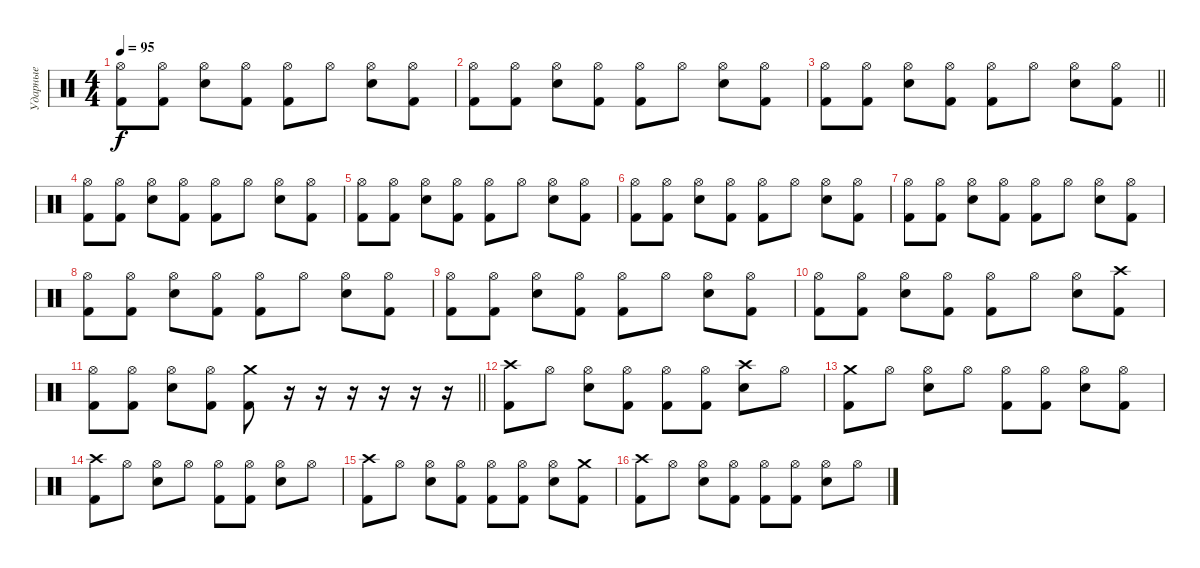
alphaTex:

\track ("Ударные" "Ударные") {instrument percussion}
\staff {score}
\articulation defaults
\ts (4 4)
\tempo 95
\clef neutral
\ks c
("Hi-Hat (open)" "Kick (hit) 2").8{dy f} ("Hi-Hat (open)" "Kick (hit) 2").8 ("Hi-Hat (open)" "Electric Snare (hit)").8 ("Hi-Hat (open)" "Kick (hit) 2").8 ("Hi-Hat (open)" "Kick (hit) 2").8 "Hi-Hat (open)".8 ("Hi-Hat (open)" "Electric Snare (hit)").8 ("Hi-Hat (open)" "Kick (hit) 2").8 |
("Hi-Hat (open)" "Kick (hit) 2").8 ("Hi-Hat (open)" "Kick (hit) 2").8 ("Hi-Hat (open)" "Electric Snare (hit)").8 ("Hi-Hat (open)" "Kick (hit) 2").8 ("Hi-Hat (open)" "Kick (hit) 2").8 "Hi-Hat (open)".8 ("Hi-Hat (open)" "Electric Snare (hit)").8 ("Hi-Hat (open)" "Kick (hit) 2").8 |
\barLineRight lightlight
("Hi-Hat (open)" "Kick (hit) 2").8 ("Hi-Hat (open)" "Kick (hit) 2").8 ("Hi-Hat (open)" "Electric Snare (hit)").8 ("Hi-Hat (open)" "Kick (hit) 2").8 ("Hi-Hat (open)" "Kick (hit) 2").8 "Hi-Hat (open)".8 ("Hi-Hat (open)" "Electric Snare (hit)").8 ("Hi-Hat (open)" "Kick (hit) 2").8 |
("Hi-Hat (open)" "Kick (hit) 2").8 ("Hi-Hat (open)" "Kick (hit) 2").8 ("Hi-Hat (open)" "Electric Snare (hit)").8 ("Hi-Hat (open)" "Kick (hit) 2").8 ("Hi-Hat (open)" "Kick (hit) 2").8 "Hi-Hat (open)".8 ("Hi-Hat (open)" "Electric Snare (hit)").8 ("Hi-Hat (open)" "Kick (hit) 2").8 |
("Hi-Hat (open)" "Kick (hit) 2").8 ("Hi-Hat (open)" "Kick (hit) 2").8 ("Hi-Hat (open)" "Electric Snare (hit)").8 ("Hi-Hat (open)" "Kick (hit) 2").8 ("Hi-Hat (open)" "Kick (hit) 2").8 "Hi-Hat (open)".8 ("Hi-Hat (open)" "Electric Snare (hit)").8 ("Hi-Hat (open)" "Kick (hit) 2").8 |
("Hi-Hat (open)" "Kick (hit) 2").8 ("Hi-Hat (open)" "Kick (hit) 2").8 ("Hi-Hat (open)" "Electric Snare (hit)").8 ("Hi-Hat (open)" "Kick (hit) 2").8 ("Hi-Hat (open)" "Kick (hit) 2").8 "Hi-Hat (open)".8 ("Hi-Hat (open)" "Electric Snare (hit)").8 ("Hi-Hat (open)" "Kick (hit) 2").8 |
("Hi-Hat (open)" "Kick (hit) 2").8 ("Hi-Hat (open)" "Kick (hit) 2").8 ("Hi-Hat (open)" "Electric Snare (hit)").8 ("Hi-Hat (open)" "Kick (hit) 2").8 ("Hi-Hat (open)" "Kick (hit) 2").8 "Hi-Hat (open)".8 ("Hi-Hat (open)" "Electric Snare (hit)").8 ("Hi-Hat (open)" "Kick (hit) 2").8 |
("Hi-Hat (open)" "Kick (hit) 2").8 ("Hi-Hat (open)" "Kick (hit) 2").8 ("Hi-Hat (open)" "Electric Snare (hit)").8 ("Hi-Hat (open)" "Kick (hit) 2").8 ("Hi-Hat (open)" "Kick (hit) 2").8 "Hi-Hat (open)".8 ("Hi-Hat (open)" "Electric Snare (hit)").8 ("Hi-Hat (open)" "Kick (hit) 2").8 |
("Hi-Hat (open)" "Kick (hit) 2").8 ("Hi-Hat (open)" "Kick (hit) 2").8 ("Hi-Hat (open)" "Electric Snare (hit)").8 ("Hi-Hat (open)" "Kick (hit) 2").8 ("Hi-Hat (open)" "Kick (hit) 2").8 "Hi-Hat (open)".8 ("Hi-Hat (open)" "Electric Snare (hit)").8 ("Hi-Hat (open)" "Kick (hit) 2").8 |
("Hi-Hat (open)" "Kick (hit) 2").8 ("Hi-Hat (open)" "Kick (hit) 2").8 ("Hi-Hat (open)" "Electric Snare (hit)").8 ("Hi-Hat (open)" "Kick (hit) 2").8 ("Hi-Hat (open)" "Kick (hit) 2").8 "Hi-Hat (open)".8 ("Hi-Hat (open)" "Electric Snare (hit)").8 ("Crash high (hit)" "Kick (hit) 2").8 |
\barLineRight lightlight
("Hi-Hat (open)" "Kick (hit) 2").8 ("Hi-Hat (open)" "Kick (hit) 2").8 ("Hi-Hat (open)" "Electric Snare (hit)").8 ("Hi-Hat (open)" "Kick (hit) 2").8 ("Crash medium (hit)" "Kick (hit) 2").8 r.16 r.16 r.16 r.16 r.16 r.16 |
("Crash high (hit)" "Kick (hit) 2").8 "Hi-Hat (open)".8 ("Hi-Hat (open)" "Electric Snare (hit)").8 ("Hi-Hat (open)" "Kick (hit) 2").8 ("Hi-Hat (open)" "Kick (hit) 2").8 ("Hi-Hat (open)" "Kick (hit) 2").8 ("Crash high (hit)" "Electric Snare (hit)").8 "Hi-Hat (open)".8 |
("Crash medium (hit)" "Kick (hit) 2").8 "Hi-Hat (open)".8 ("Hi-Hat (open)" "Electric Snare (hit)").8 "Hi-Hat (open)".8 ("Hi-Hat (open)" "Kick (hit) 2").8 ("Hi-Hat (open)" "Kick (hit) 2").8 ("Hi-Hat (open)" "Electric Snare (hit)").8 ("Hi-Hat (open)" "Kick (hit) 2").8 |
("Crash high (hit)" "Kick (hit) 2").8 "Hi-Hat (open)".8 ("Hi-Hat (open)" "Electric Snare (hit)").8 "Hi-Hat (open)".8 ("Hi-Hat (open)" "Kick (hit) 2").8 ("Hi-Hat (open)" "Kick (hit) 2").8 ("Hi-Hat (open)" "Electric Snare (hit)").8 "Hi-Hat (open)".8 |
("Crash high (hit)" "Kick (hit) 2").8 "Hi-Hat (open)".8 ("Hi-Hat (open)" "Electric Snare (hit)").8 ("Hi-Hat (open)" "Kick (hit) 2").8 ("Hi-Hat (open)" "Kick (hit) 2").8 ("Hi-Hat (open)" "Kick (hit) 2").8 ("Hi-Hat (open)" "Electric Snare (hit)").8 ("Crash medium (hit)" "Kick (hit) 2").8 |
("Crash high (hit)" "Kick (hit) 2").8 "Hi-Hat (open)".8 ("Hi-Hat (open)" "Electric Snare (hit)").8 ("Hi-Hat (open)" "Kick (hit) 2").8 ("Hi-Hat (open)" "Kick (hit) 2").8 ("Hi-Hat (open)" "Kick (hit) 2").8 ("Hi-Hat (open)" "Electric Snare (hit)").8 "Hi-Hat (open)".8
